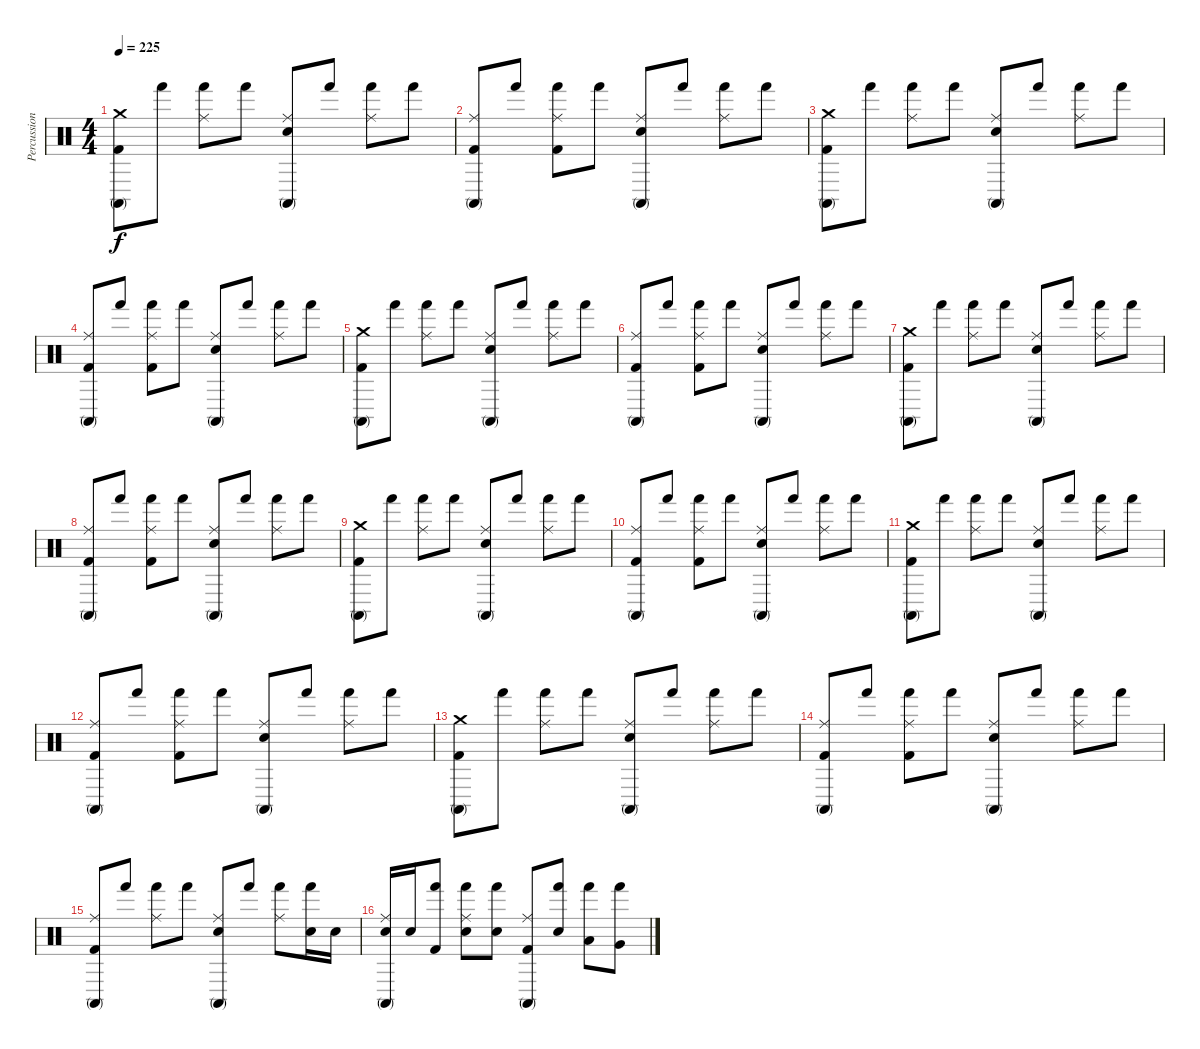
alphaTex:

\track ("Percussion" "Percussion") {instrument percussion}
\staff {score}
\articulation defaults
\ts (4 4)
\tempo 225
\clef neutral
\ks c
("Crash medium (hit)" "Conga high (mute)" "Kick (hit) 2").8{dy f} "Hand (hit)".8 ("Ride (middle)" "Hand (hit)").8 "Hand (hit)".8 ("Ride (middle)" "Electric Snare (hit)" "Conga high (mute)").8 "Hand (hit)".8 ("Ride (middle)" "Hand (hit)").8 "Hand (hit)".8 |
("Ride (middle)" "Conga high (mute)" "Kick (hit) 2").8 "Hand (hit)".8 ("Ride (middle)" "Hand (hit)" "Kick (hit) 2").8 "Hand (hit)".8 ("Ride (middle)" "Electric Snare (hit)" "Conga high (mute)").8 "Hand (hit)".8 ("Ride (middle)" "Hand (hit)").8 "Hand (hit)".8 |
("Crash medium (hit)" "Conga high (mute)" "Kick (hit) 2").8 "Hand (hit)".8 ("Ride (middle)" "Hand (hit)").8 "Hand (hit)".8 ("Ride (middle)" "Electric Snare (hit)" "Conga high (mute)").8 "Hand (hit)".8 ("Ride (middle)" "Hand (hit)").8 "Hand (hit)".8 |
("Ride (middle)" "Conga high (mute)" "Kick (hit) 2").8 "Hand (hit)".8 ("Ride (middle)" "Hand (hit)" "Kick (hit) 2").8 "Hand (hit)".8 ("Ride (middle)" "Electric Snare (hit)" "Conga high (mute)").8 "Hand (hit)".8 ("Ride (middle)" "Hand (hit)").8 "Hand (hit)".8 |
("Crash medium (hit)" "Conga high (mute)" "Kick (hit) 2").8 "Hand (hit)".8 ("Ride (middle)" "Hand (hit)").8 "Hand (hit)".8 ("Ride (middle)" "Electric Snare (hit)" "Conga high (mute)").8 "Hand (hit)".8 ("Ride (middle)" "Hand (hit)").8 "Hand (hit)".8 |
("Ride (middle)" "Conga high (mute)" "Kick (hit) 2").8 "Hand (hit)".8 ("Ride (middle)" "Hand (hit)" "Kick (hit) 2").8 "Hand (hit)".8 ("Ride (middle)" "Electric Snare (hit)" "Conga high (mute)").8 "Hand (hit)".8 ("Ride (middle)" "Hand (hit)").8 "Hand (hit)".8 |
("Crash medium (hit)" "Conga high (mute)" "Kick (hit) 2").8 "Hand (hit)".8 ("Ride (middle)" "Hand (hit)").8 "Hand (hit)".8 ("Ride (middle)" "Electric Snare (hit)" "Conga high (mute)").8 "Hand (hit)".8 ("Ride (middle)" "Hand (hit)").8 "Hand (hit)".8 |
("Ride (middle)" "Conga high (mute)" "Kick (hit) 2").8 "Hand (hit)".8 ("Ride (middle)" "Hand (hit)" "Kick (hit) 2").8 "Hand (hit)".8 ("Ride (middle)" "Electric Snare (hit)" "Conga high (mute)").8 "Hand (hit)".8 ("Ride (middle)" "Hand (hit)").8 "Hand (hit)".8 |
("Crash medium (hit)" "Conga high (mute)" "Kick (hit) 2").8 "Hand (hit)".8 ("Ride (middle)" "Hand (hit)").8 "Hand (hit)".8 ("Ride (middle)" "Electric Snare (hit)" "Conga high (mute)").8 "Hand (hit)".8 ("Ride (middle)" "Hand (hit)").8 "Hand (hit)".8 |
("Ride (middle)" "Conga high (mute)" "Kick (hit) 2").8 "Hand (hit)".8 ("Ride (middle)" "Hand (hit)" "Kick (hit) 2").8 "Hand (hit)".8 ("Ride (middle)" "Electric Snare (hit)" "Conga high (mute)").8 "Hand (hit)".8 ("Ride (middle)" "Hand (hit)").8 "Hand (hit)".8 |
("Crash medium (hit)" "Conga high (mute)" "Kick (hit) 2").8 "Hand (hit)".8 ("Ride (middle)" "Hand (hit)").8 "Hand (hit)".8 ("Ride (middle)" "Electric Snare (hit)" "Conga high (mute)").8 "Hand (hit)".8 ("Ride (middle)" "Hand (hit)").8 "Hand (hit)".8 |
("Ride (middle)" "Conga high (mute)" "Kick (hit) 2").8 "Hand (hit)".8 ("Ride (middle)" "Hand (hit)" "Kick (hit) 2").8 "Hand (hit)".8 ("Ride (middle)" "Electric Snare (hit)" "Conga high (mute)").8 "Hand (hit)".8 ("Ride (middle)" "Hand (hit)").8 "Hand (hit)".8 |
("Crash medium (hit)" "Conga high (mute)" "Kick (hit) 2").8 "Hand (hit)".8 ("Ride (middle)" "Hand (hit)").8 "Hand (hit)".8 ("Ride (middle)" "Electric Snare (hit)" "Conga high (mute)").8 "Hand (hit)".8 ("Ride (middle)" "Hand (hit)").8 "Hand (hit)".8 |
("Ride (middle)" "Conga high (mute)" "Kick (hit) 2").8 "Hand (hit)".8 ("Ride (middle)" "Hand (hit)" "Kick (hit) 2").8 "Hand (hit)".8 ("Ride (middle)" "Electric Snare (hit)" "Conga high (mute)").8 "Hand (hit)".8 ("Ride (middle)" "Hand (hit)").8 "Hand (hit)".8 |
("Ride (middle)" "Conga high (mute)" "Kick (hit) 2").8 "Hand (hit)".8 ("Ride (middle)" "Hand (hit)").8 "Hand (hit)".8 ("Ride (middle)" "Electric Snare (hit)" "Conga high (mute)").8 "Hand (hit)".8 ("Ride (middle)" "Hand (hit)").8 ("Electric Snare (hit)" "Hand (hit)").16 "Electric Snare (hit)".16 |
("Ride (middle)" "Electric Snare (hit)" "Conga high (mute)").16 "Electric Snare (hit)".16 ("Hand (hit)" "Kick (hit) 2").8 ("Ride (middle)" "Electric Snare (hit)" "Hand (hit)").8 ("Electric Snare (hit)" "Hand (hit)").8 ("Ride (middle)" "Conga high (mute)" "Kick (hit) 2").8 ("Electric Snare (hit)" "Hand (hit)").8 ("Low Tom (hit)" "Hand (hit)").8 ("Very Low Tom (hit)" "Hand (hit)").8
